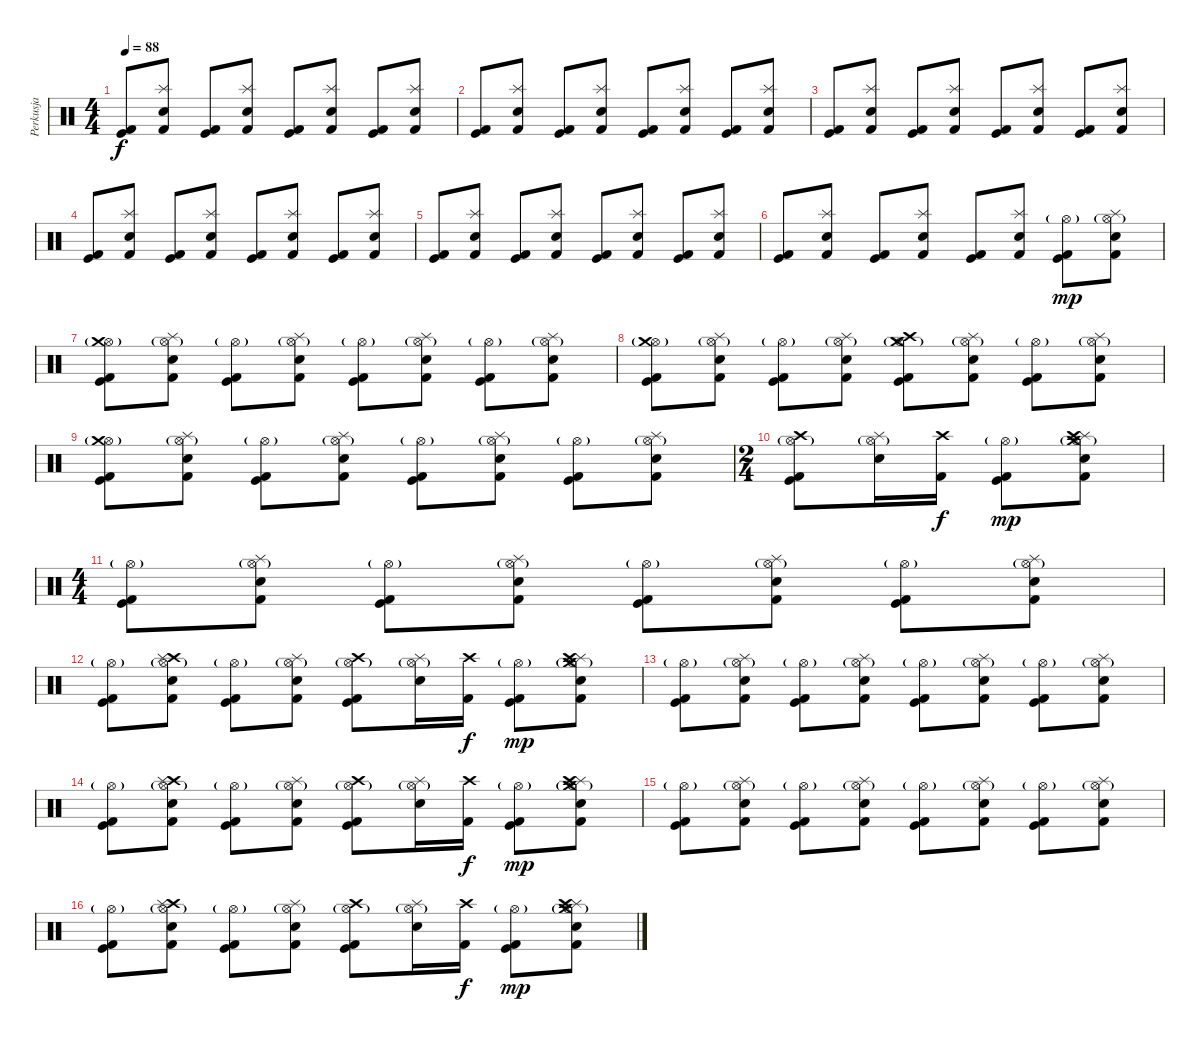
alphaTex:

\track ("Perkusja" "Perkusja") {instrument percussion}
\staff {score}
\articulation defaults
\ts (4 4)
\tempo 88
\clef neutral
\ks c
("Kick (hit)" "Kick (hit) 2").8{dy f} ("Splash (hit)" "Electric Snare (hit)" "Kick (hit) 2").8 ("Kick (hit)" "Kick (hit) 2").8 ("Splash (hit)" "Electric Snare (hit)" "Kick (hit) 2").8 ("Kick (hit)" "Kick (hit) 2").8 ("Splash (hit)" "Electric Snare (hit)" "Kick (hit) 2").8 ("Kick (hit)" "Kick (hit) 2").8 ("Splash (hit)" "Electric Snare (hit)" "Kick (hit) 2").8 |
("Kick (hit)" "Kick (hit) 2").8 ("Splash (hit)" "Electric Snare (hit)" "Kick (hit) 2").8 ("Kick (hit)" "Kick (hit) 2").8 ("Splash (hit)" "Electric Snare (hit)" "Kick (hit) 2").8 ("Kick (hit)" "Kick (hit) 2").8 ("Splash (hit)" "Electric Snare (hit)" "Kick (hit) 2").8 ("Kick (hit)" "Kick (hit) 2").8 ("Splash (hit)" "Electric Snare (hit)" "Kick (hit) 2").8 |
("Kick (hit)" "Kick (hit) 2").8 ("Splash (hit)" "Electric Snare (hit)" "Kick (hit) 2").8 ("Kick (hit)" "Kick (hit) 2").8 ("Splash (hit)" "Electric Snare (hit)" "Kick (hit) 2").8 ("Kick (hit)" "Kick (hit) 2").8 ("Splash (hit)" "Electric Snare (hit)" "Kick (hit) 2").8 ("Kick (hit)" "Kick (hit) 2").8 ("Splash (hit)" "Electric Snare (hit)" "Kick (hit) 2").8 |
("Kick (hit)" "Kick (hit) 2").8 ("Splash (hit)" "Electric Snare (hit)" "Kick (hit) 2").8 ("Kick (hit)" "Kick (hit) 2").8 ("Splash (hit)" "Electric Snare (hit)" "Kick (hit) 2").8 ("Kick (hit)" "Kick (hit) 2").8 ("Splash (hit)" "Electric Snare (hit)" "Kick (hit) 2").8 ("Kick (hit)" "Kick (hit) 2").8 ("Splash (hit)" "Electric Snare (hit)" "Kick (hit) 2").8 |
("Kick (hit)" "Kick (hit) 2").8 ("Splash (hit)" "Electric Snare (hit)" "Kick (hit) 2").8 ("Kick (hit)" "Kick (hit) 2").8 ("Splash (hit)" "Electric Snare (hit)" "Kick (hit) 2").8 ("Kick (hit)" "Kick (hit) 2").8 ("Splash (hit)" "Electric Snare (hit)" "Kick (hit) 2").8 ("Kick (hit)" "Kick (hit) 2").8 ("Splash (hit)" "Electric Snare (hit)" "Kick (hit) 2").8 |
("Kick (hit)" "Kick (hit) 2").8 ("Splash (hit)" "Electric Snare (hit)" "Kick (hit) 2").8 ("Kick (hit)" "Kick (hit) 2").8 ("Splash (hit)" "Electric Snare (hit)" "Kick (hit) 2").8 ("Kick (hit)" "Kick (hit) 2").8 ("Splash (hit)" "Electric Snare (hit)" "Kick (hit) 2").8 ("Hi-Hat (open)"{g} "Kick (hit)" "Kick (hit) 2").8{dy mp} ("Hi-Hat (open)"{g} "Splash (hit)" "Electric Snare (hit)" "Kick (hit) 2").8 |
("Hi-Hat (open)"{g} "Crash medium (hit)" "Kick (hit)" "Kick (hit) 2").8 ("Hi-Hat (open)"{g} "Splash (hit)" "Electric Snare (hit)" "Kick (hit) 2").8 ("Hi-Hat (open)"{g} "Kick (hit)" "Kick (hit) 2").8 ("Hi-Hat (open)"{g} "Splash (hit)" "Electric Snare (hit)" "Kick (hit) 2").8 ("Hi-Hat (open)"{g} "Kick (hit)" "Kick (hit) 2").8 ("Hi-Hat (open)"{g} "Splash (hit)" "Electric Snare (hit)" "Kick (hit) 2").8 ("Hi-Hat (open)"{g} "Kick (hit)" "Kick (hit) 2").8 ("Hi-Hat (open)"{g} "Splash (hit)" "Electric Snare (hit)" "Kick (hit) 2").8 |
("Hi-Hat (open)"{g} "Crash medium (hit)" "Kick (hit)" "Kick (hit) 2").8 ("Hi-Hat (open)"{g} "Splash (hit)" "Electric Snare (hit)" "Kick (hit) 2").8 ("Hi-Hat (open)"{g} "Kick (hit)" "Kick (hit) 2").8 ("Hi-Hat (open)"{g} "Splash (hit)" "Electric Snare (hit)" "Kick (hit) 2").8 ("Hi-Hat (open)"{g} "Crash high (hit)" "Crash medium (hit)" "Kick (hit)" "Kick (hit) 2").8 ("Hi-Hat (open)"{g} "Splash (hit)" "Electric Snare (hit)" "Kick (hit) 2").8 ("Hi-Hat (open)"{g} "Kick (hit)" "Kick (hit) 2").8 ("Hi-Hat (open)"{g} "Splash (hit)" "Electric Snare (hit)" "Kick (hit) 2").8 |
("Hi-Hat (open)"{g} "Crash medium (hit)" "Kick (hit)" "Kick (hit) 2").8 ("Hi-Hat (open)"{g} "Splash (hit)" "Electric Snare (hit)" "Kick (hit) 2").8 ("Hi-Hat (open)"{g} "Kick (hit)" "Kick (hit) 2").8 ("Hi-Hat (open)"{g} "Splash (hit)" "Electric Snare (hit)" "Kick (hit) 2").8 ("Hi-Hat (open)"{g} "Kick (hit)" "Kick (hit) 2").8 ("Hi-Hat (open)"{g} "Splash (hit)" "Electric Snare (hit)" "Kick (hit) 2").8 ("Hi-Hat (open)"{g} "Kick (hit)" "Kick (hit) 2").8 ("Hi-Hat (open)"{g} "Splash (hit)" "Electric Snare (hit)" "Kick (hit) 2").8 |
\ts (2 4)
("Hi-Hat (open)"{g} "Crash high (hit)" "Kick (hit)" "Kick (hit) 2").8 ("Hi-Hat (open)"{g} "Splash (hit)" "Electric Snare (hit)").16 ("Crash high (hit)" "Kick (hit) 2").16{dy f} ("Hi-Hat (open)"{g} "Kick (hit)" "Kick (hit) 2").8{dy mp} ("Hi-Hat (open)"{g} "Crash medium (hit)" "Splash (hit)" "Crash high (hit)" "Electric Snare (hit)" "Kick (hit) 2").8 |
\ts (4 4)
("Hi-Hat (open)"{g} "Kick (hit)" "Kick (hit) 2").8 ("Hi-Hat (open)"{g} "Splash (hit)" "Electric Snare (hit)" "Kick (hit) 2").8 ("Hi-Hat (open)"{g} "Kick (hit)" "Kick (hit) 2").8 ("Hi-Hat (open)"{g} "Splash (hit)" "Electric Snare (hit)" "Kick (hit) 2").8 ("Hi-Hat (open)"{g} "Kick (hit)" "Kick (hit) 2").8 ("Hi-Hat (open)"{g} "Splash (hit)" "Electric Snare (hit)" "Kick (hit) 2").8 ("Hi-Hat (open)"{g} "Kick (hit)" "Kick (hit) 2").8 ("Hi-Hat (open)"{g} "Splash (hit)" "Electric Snare (hit)" "Kick (hit) 2").8 |
("Hi-Hat (open)"{g} "Kick (hit)" "Kick (hit) 2").8 ("Hi-Hat (open)"{g} "Crash high (hit)" "Splash (hit)" "Electric Snare (hit)" "Kick (hit) 2").8 ("Hi-Hat (open)"{g} "Kick (hit)" "Kick (hit) 2").8 ("Hi-Hat (open)"{g} "Splash (hit)" "Electric Snare (hit)" "Kick (hit) 2").8 ("Hi-Hat (open)"{g} "Crash high (hit)" "Kick (hit)" "Kick (hit) 2").8 ("Hi-Hat (open)"{g} "Splash (hit)" "Electric Snare (hit)").16 ("Crash high (hit)" "Kick (hit) 2").16{dy f} ("Hi-Hat (open)"{g} "Kick (hit)" "Kick (hit) 2").8{dy mp} ("Hi-Hat (open)"{g} "Crash medium (hit)" "Splash (hit)" "Crash high (hit)" "Electric Snare (hit)" "Kick (hit) 2").8 |
("Hi-Hat (open)"{g} "Kick (hit)" "Kick (hit) 2").8 ("Hi-Hat (open)"{g} "Splash (hit)" "Electric Snare (hit)" "Kick (hit) 2").8 ("Hi-Hat (open)"{g} "Kick (hit)" "Kick (hit) 2").8 ("Hi-Hat (open)"{g} "Splash (hit)" "Electric Snare (hit)" "Kick (hit) 2").8 ("Hi-Hat (open)"{g} "Kick (hit)" "Kick (hit) 2").8 ("Hi-Hat (open)"{g} "Splash (hit)" "Electric Snare (hit)" "Kick (hit) 2").8 ("Hi-Hat (open)"{g} "Kick (hit)" "Kick (hit) 2").8 ("Hi-Hat (open)"{g} "Splash (hit)" "Electric Snare (hit)" "Kick (hit) 2").8 |
("Hi-Hat (open)"{g} "Kick (hit)" "Kick (hit) 2").8 ("Hi-Hat (open)"{g} "Crash high (hit)" "Splash (hit)" "Electric Snare (hit)" "Kick (hit) 2").8 ("Hi-Hat (open)"{g} "Kick (hit)" "Kick (hit) 2").8 ("Hi-Hat (open)"{g} "Splash (hit)" "Electric Snare (hit)" "Kick (hit) 2").8 ("Hi-Hat (open)"{g} "Crash high (hit)" "Kick (hit)" "Kick (hit) 2").8 ("Hi-Hat (open)"{g} "Splash (hit)" "Electric Snare (hit)").16 ("Crash high (hit)" "Kick (hit) 2").16{dy f} ("Hi-Hat (open)"{g} "Kick (hit)" "Kick (hit) 2").8{dy mp} ("Hi-Hat (open)"{g} "Crash medium (hit)" "Splash (hit)" "Crash high (hit)" "Electric Snare (hit)" "Kick (hit) 2").8 |
("Hi-Hat (open)"{g} "Kick (hit)" "Kick (hit) 2").8 ("Hi-Hat (open)"{g} "Splash (hit)" "Electric Snare (hit)" "Kick (hit) 2").8 ("Hi-Hat (open)"{g} "Kick (hit)" "Kick (hit) 2").8 ("Hi-Hat (open)"{g} "Splash (hit)" "Electric Snare (hit)" "Kick (hit) 2").8 ("Hi-Hat (open)"{g} "Kick (hit)" "Kick (hit) 2").8 ("Hi-Hat (open)"{g} "Splash (hit)" "Electric Snare (hit)" "Kick (hit) 2").8 ("Hi-Hat (open)"{g} "Kick (hit)" "Kick (hit) 2").8 ("Hi-Hat (open)"{g} "Splash (hit)" "Electric Snare (hit)" "Kick (hit) 2").8 |
("Hi-Hat (open)"{g} "Kick (hit)" "Kick (hit) 2").8 ("Hi-Hat (open)"{g} "Crash high (hit)" "Splash (hit)" "Electric Snare (hit)" "Kick (hit) 2").8 ("Hi-Hat (open)"{g} "Kick (hit)" "Kick (hit) 2").8 ("Hi-Hat (open)"{g} "Splash (hit)" "Electric Snare (hit)" "Kick (hit) 2").8 ("Hi-Hat (open)"{g} "Crash high (hit)" "Kick (hit)" "Kick (hit) 2").8 ("Hi-Hat (open)"{g} "Splash (hit)" "Electric Snare (hit)").16 ("Crash high (hit)" "Kick (hit) 2").16{dy f} ("Hi-Hat (open)"{g} "Kick (hit)" "Kick (hit) 2").8{dy mp} ("Hi-Hat (open)"{g} "Crash medium (hit)" "Splash (hit)" "Crash high (hit)" "Electric Snare (hit)" "Kick (hit) 2").8
